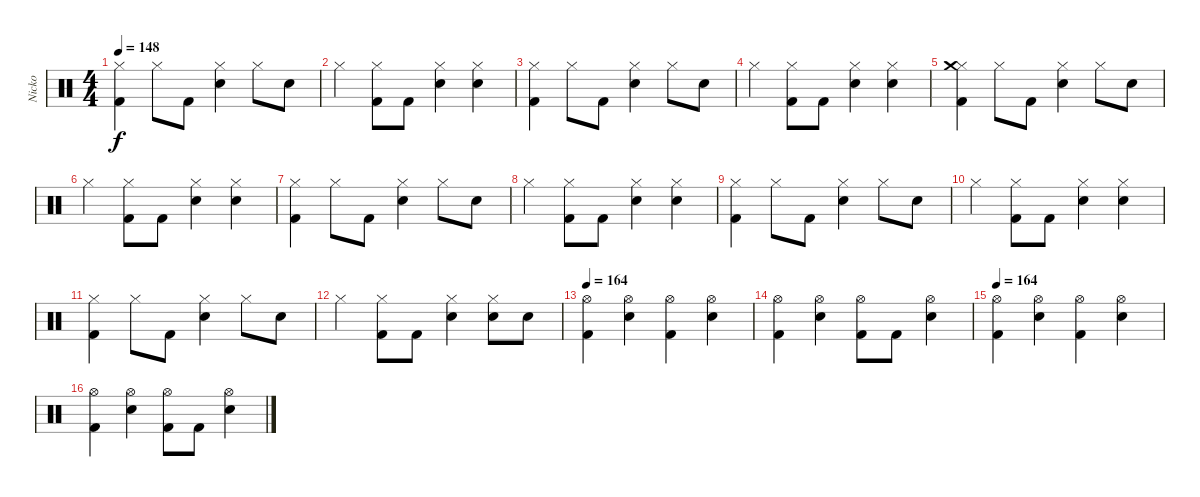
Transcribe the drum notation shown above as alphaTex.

\track ("Nicko" "Nicko") {instrument percussion}
\staff {score}
\articulation defaults
\ts (4 4)
\tempo 148
\clef neutral
\ks c
("Hi-Hat (closed)" "Kick (hit) 2").4{dy f} "Hi-Hat (closed)".8 "Kick (hit) 2".8 ("Hi-Hat (closed)" "Snare (hit) 2").4 "Hi-Hat (closed)".8 "Snare (hit) 2".8 |
"Hi-Hat (closed)".4 ("Hi-Hat (closed)" "Kick (hit) 2").8 "Kick (hit) 2".8 ("Hi-Hat (closed)" "Snare (hit) 2").4 ("Hi-Hat (closed)" "Snare (hit) 2").4 |
("Hi-Hat (closed)" "Kick (hit) 2").4 "Hi-Hat (closed)".8 "Kick (hit) 2".8 ("Hi-Hat (closed)" "Snare (hit) 2").4 "Hi-Hat (closed)".8 "Snare (hit) 2".8 |
"Hi-Hat (closed)".4 ("Hi-Hat (closed)" "Kick (hit) 2").8 "Kick (hit) 2".8 ("Hi-Hat (closed)" "Snare (hit) 2").4 ("Hi-Hat (closed)" "Snare (hit) 2").4 |
("Hi-Hat (closed)" "Crash medium (hit)" "Kick (hit) 2").4 "Hi-Hat (closed)".8 "Kick (hit) 2".8 ("Hi-Hat (closed)" "Snare (hit) 2").4 "Hi-Hat (closed)".8 "Snare (hit) 2".8 |
"Hi-Hat (closed)".4 ("Hi-Hat (closed)" "Kick (hit) 2").8 "Kick (hit) 2".8 ("Hi-Hat (closed)" "Snare (hit) 2").4 ("Hi-Hat (closed)" "Snare (hit) 2").4 |
("Hi-Hat (closed)" "Kick (hit) 2").4 "Hi-Hat (closed)".8 "Kick (hit) 2".8 ("Hi-Hat (closed)" "Snare (hit) 2").4 "Hi-Hat (closed)".8 "Snare (hit) 2".8 |
"Hi-Hat (closed)".4 ("Hi-Hat (closed)" "Kick (hit) 2").8 "Kick (hit) 2".8 ("Hi-Hat (closed)" "Snare (hit) 2").4 ("Hi-Hat (closed)" "Snare (hit) 2").4 |
("Hi-Hat (closed)" "Kick (hit) 2").4 "Hi-Hat (closed)".8 "Kick (hit) 2".8 ("Hi-Hat (closed)" "Snare (hit) 2").4 "Hi-Hat (closed)".8 "Snare (hit) 2".8 |
"Hi-Hat (closed)".4 ("Hi-Hat (closed)" "Kick (hit) 2").8 "Kick (hit) 2".8 ("Hi-Hat (closed)" "Snare (hit) 2").4 ("Hi-Hat (closed)" "Snare (hit) 2").4 |
("Hi-Hat (closed)" "Kick (hit) 2").4 "Hi-Hat (closed)".8 "Kick (hit) 2".8 ("Hi-Hat (closed)" "Snare (hit) 2").4 "Hi-Hat (closed)".8 "Snare (hit) 2".8 |
"Hi-Hat (closed)".4 ("Hi-Hat (closed)" "Kick (hit) 2").8 "Kick (hit) 2".8 ("Hi-Hat (closed)" "Snare (hit) 2").4 ("Hi-Hat (closed)" "Snare (hit) 2").8 "Snare (hit) 2".8 |
\tempo 164
("Hi-Hat (open)" "Kick (hit) 2").4 ("Hi-Hat (open)" "Snare (hit) 2").4 ("Hi-Hat (open)" "Kick (hit) 2").4 ("Hi-Hat (open)" "Snare (hit) 2").4 |
("Hi-Hat (open)" "Kick (hit) 2").4 ("Hi-Hat (open)" "Snare (hit) 2").4 ("Hi-Hat (open)" "Kick (hit) 2").8 "Kick (hit) 2".8 ("Hi-Hat (open)" "Snare (hit) 2").4 |
\tempo 164
("Hi-Hat (open)" "Kick (hit) 2").4 ("Hi-Hat (open)" "Snare (hit) 2").4 ("Hi-Hat (open)" "Kick (hit) 2").4 ("Hi-Hat (open)" "Snare (hit) 2").4 |
("Hi-Hat (open)" "Kick (hit) 2").4 ("Hi-Hat (open)" "Snare (hit) 2").4 ("Hi-Hat (open)" "Kick (hit) 2").8 "Kick (hit) 2".8 ("Hi-Hat (open)" "Snare (hit) 2").4
